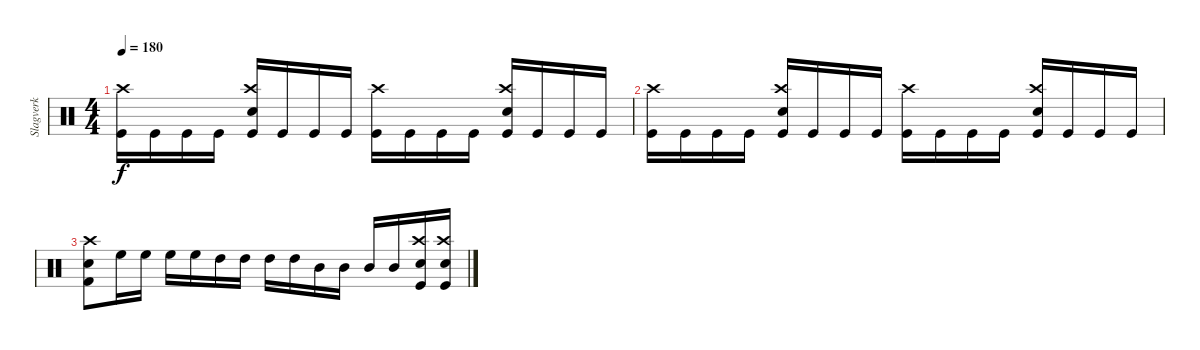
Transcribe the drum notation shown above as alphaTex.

\track ("Slagverk" "Slagverk") {instrument percussion}
\staff {score}
\articulation defaults
\ts (4 4)
\tempo 180
\clef neutral
\ks c
("Kick (hit)" "Crash high (hit)").16{dy f} "Kick (hit)".16 "Kick (hit)".16 "Kick (hit)".16 ("Kick (hit)" "Electric Snare (hit)" "Crash high (hit)").16 "Kick (hit)".16 "Kick (hit)".16 "Kick (hit)".16 ("Kick (hit)" "Crash high (hit)").16 "Kick (hit)".16 "Kick (hit)".16 "Kick (hit)".16 ("Kick (hit)" "Electric Snare (hit)" "Crash high (hit)").16 "Kick (hit)".16 "Kick (hit)".16 "Kick (hit)".16 |
("Kick (hit)" "Crash high (hit)").16 "Kick (hit)".16 "Kick (hit)".16 "Kick (hit)".16 ("Kick (hit)" "Electric Snare (hit)" "Crash high (hit)").16 "Kick (hit)".16 "Kick (hit)".16 "Kick (hit)".16 ("Kick (hit)" "Crash high (hit)").16 "Kick (hit)".16 "Kick (hit)".16 "Kick (hit)".16 ("Kick (hit)" "Electric Snare (hit)" "Crash high (hit)").16 "Kick (hit)".16 "Kick (hit)".16 "Kick (hit)".16 |
("Crash high (hit)" "Kick (hit) 2" "Electric Snare (hit)").8 "High Floor Tom (hit)".16 "High Floor Tom (hit)".16 "High Floor Tom (hit)".16 "High Floor Tom (hit)".16 "High Tom (hit)".16 "High Tom (hit)".16 "High Tom (hit)".16 "High Tom (hit)".16 "Mid Tom (hit)".16 "Mid Tom (hit)".16 "Mid Tom (hit)".16 "Mid Tom (hit)".16 ("Kick (hit)" "Electric Snare (hit)" "Crash high (hit)").16 ("Kick (hit)" "Electric Snare (hit)" "Crash high (hit)").16
